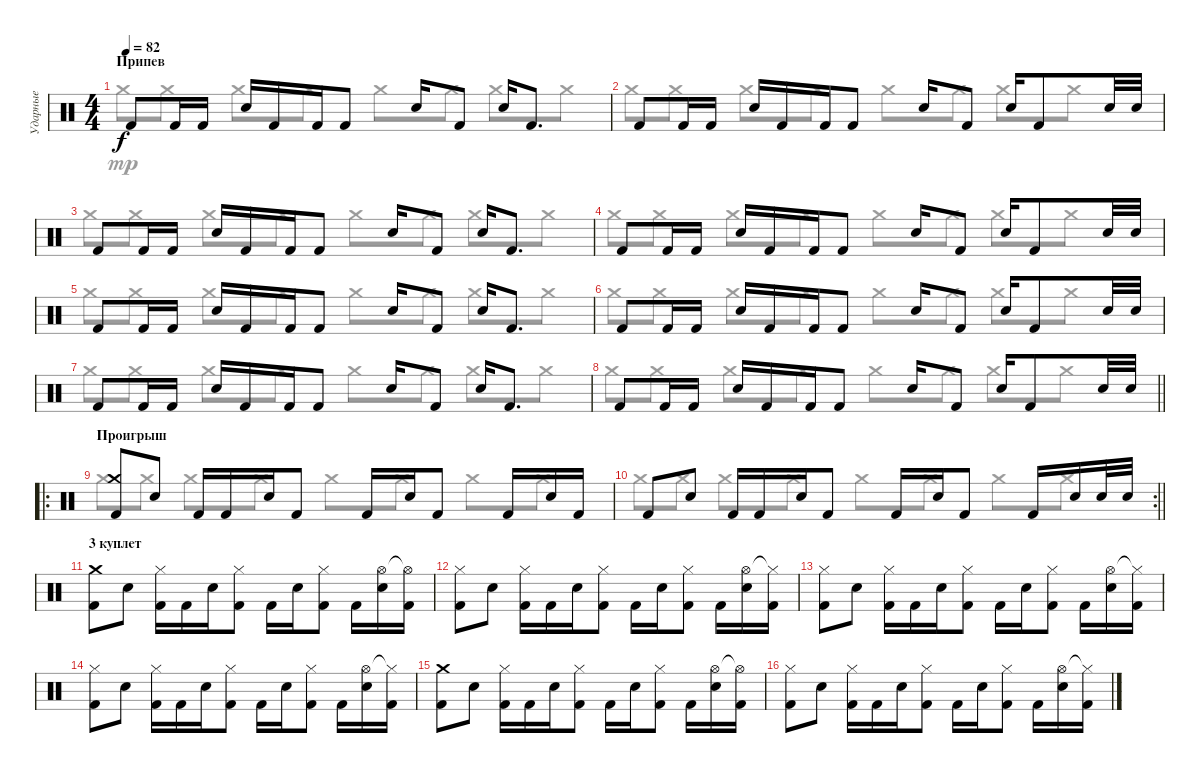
\track ("Ударные" "Ударные") {instrument percussion}
\staff {score}
\articulation defaults
\voice
\ts (4 4)
\section ("" "Припев")
\tempo 82
\clef neutral
\ks c "Kick (hit) 2".8{dy f} "Kick (hit) 2".16 "Kick (hit) 2".16 "Snare (hit) 2".16 "Kick (hit) 2".16 "Kick (hit) 2".16 "Kick (hit) 2".8 "Snare (hit) 2".16 "Kick (hit) 2".8 "Snare (hit) 2".16 "Kick (hit) 2".8{d}
|
"Kick (hit) 2".8 "Kick (hit) 2".16 "Kick (hit) 2".16 "Snare (hit) 2".16 "Kick (hit) 2".16 "Kick (hit) 2".16 "Kick (hit) 2".8 "Snare (hit) 2".16 "Kick (hit) 2".8 "Snare (hit) 2".16 "Kick (hit) 2".8 "Snare (hit) 2".32 "Snare (hit) 2".32 |
"Kick (hit) 2".8 "Kick (hit) 2".16 "Kick (hit) 2".16 "Snare (hit) 2".16 "Kick (hit) 2".16 "Kick (hit) 2".16 "Kick (hit) 2".8 "Snare (hit) 2".16 "Kick (hit) 2".8 "Snare (hit) 2".16 "Kick (hit) 2".8{d} |
"Kick (hit) 2".8 "Kick (hit) 2".16 "Kick (hit) 2".16 "Snare (hit) 2".16 "Kick (hit) 2".16 "Kick (hit) 2".16 "Kick (hit) 2".8 "Snare (hit) 2".16 "Kick (hit) 2".8 "Snare (hit) 2".16 "Kick (hit) 2".8 "Snare (hit) 2".32 "Snare (hit) 2".32 |
"Kick (hit) 2".8 "Kick (hit) 2".16 "Kick (hit) 2".16 "Snare (hit) 2".16 "Kick (hit) 2".16 "Kick (hit) 2".16 "Kick (hit) 2".8 "Snare (hit) 2".16 "Kick (hit) 2".8 "Snare (hit) 2".16 "Kick (hit) 2".8{d} |
"Kick (hit) 2".8 "Kick (hit) 2".16 "Kick (hit) 2".16 "Snare (hit) 2".16 "Kick (hit) 2".16 "Kick (hit) 2".16 "Kick (hit) 2".8 "Snare (hit) 2".16 "Kick (hit) 2".8 "Snare (hit) 2".16 "Kick (hit) 2".8 "Snare (hit) 2".32 "Snare (hit) 2".32 |
"Kick (hit) 2".8 "Kick (hit) 2".16 "Kick (hit) 2".16 "Snare (hit) 2".16 "Kick (hit) 2".16 "Kick (hit) 2".16 "Kick (hit) 2".8 "Snare (hit) 2".16 "Kick (hit) 2".8 "Snare (hit) 2".16 "Kick (hit) 2".8{d} |
\barLineRight lightlight "Kick (hit) 2".8 "Kick (hit) 2".16 "Kick (hit) 2".16 "Snare (hit) 2".16 "Kick (hit) 2".16 "Kick (hit) 2".16 "Kick (hit) 2".8 "Snare (hit) 2".16 "Kick (hit) 2".8 "Snare (hit) 2".16 "Kick (hit) 2".8 "Snare (hit) 2".32 "Snare (hit) 2".32
|
\ro
\section ("" "Проигрыш")
("Crash medium (hit)" "Kick (hit) 2").8 "Snare (hit) 2".8 "Kick (hit) 2".16 "Kick (hit) 2".16 "Snare (hit) 2".16 "Kick (hit) 2".8 "Kick (hit) 2".16 "Snare (hit) 2".16 "Kick (hit) 2".8 "Kick (hit) 2".16 "Snare (hit) 2".16 "Kick (hit) 2".16 |
\rc 2
\barLineRight lightlight "Kick (hit) 2".8 "Snare (hit) 2".8 "Kick (hit) 2".16 "Kick (hit) 2".16 "Snare (hit) 2".16 "Kick (hit) 2".8 "Kick (hit) 2".16 "Snare (hit) 2".16 "Kick (hit) 2".8 "Kick (hit) 2".16 "Snare (hit) 2".16 "Snare (hit) 2".32 "Snare (hit) 2".32
|
\section ("" "3 куплет")
("Crash medium (hit)" "Kick (hit) 2").8 "Snare (hit) 2".8 ("Hi-Hat (closed)" "Kick (hit) 2").16 "Kick (hit) 2".16 "Snare (hit) 2".16 ("Hi-Hat (closed)" "Kick (hit) 2").8 "Kick (hit) 2".16 "Snare (hit) 2".16 ("Hi-Hat (closed)" "Kick (hit) 2").8 "Kick (hit) 2".16 ("Hi-Hat (open)" "Snare (hit) 2").16 ("Hi-Hat (open)"{t} "Kick (hit) 2").16 |
("Hi-Hat (closed)" "Kick (hit) 2").8 "Snare (hit) 2".8 ("Hi-Hat (closed)" "Kick (hit) 2").16 "Kick (hit) 2".16 "Snare (hit) 2".16 ("Hi-Hat (closed)" "Kick (hit) 2").8 "Kick (hit) 2".16 "Snare (hit) 2".16 ("Hi-Hat (closed)" "Kick (hit) 2").8 "Kick (hit) 2".16 ("Hi-Hat (open)" "Snare (hit) 2").16 ("Hi-Hat (closed)"{t} "Kick (hit) 2").16 |
("Hi-Hat (closed)" "Kick (hit) 2").8 "Snare (hit) 2".8 ("Hi-Hat (closed)" "Kick (hit) 2").16 "Kick (hit) 2".16 "Snare (hit) 2".16 ("Hi-Hat (closed)" "Kick (hit) 2").8 "Kick (hit) 2".16 "Snare (hit) 2".16 ("Hi-Hat (closed)" "Kick (hit) 2").8 "Kick (hit) 2".16 ("Hi-Hat (open)" "Snare (hit) 2").16 ("Hi-Hat (closed)"{t} "Kick (hit) 2").16 |
("Hi-Hat (closed)" "Kick (hit) 2").8 "Snare (hit) 2".8 ("Hi-Hat (closed)" "Kick (hit) 2").16 "Kick (hit) 2".16 "Snare (hit) 2".16 ("Hi-Hat (closed)" "Kick (hit) 2").8 "Kick (hit) 2".16 "Snare (hit) 2".16 ("Hi-Hat (closed)" "Kick (hit) 2").8 "Kick (hit) 2".16 ("Hi-Hat (open)" "Snare (hit) 2").16 ("Hi-Hat (closed)"{t} "Kick (hit) 2").16 |
("Crash medium (hit)" "Kick (hit) 2").8 "Snare (hit) 2".8 ("Hi-Hat (closed)" "Kick (hit) 2").16 "Kick (hit) 2".16 "Snare (hit) 2".16 ("Hi-Hat (closed)" "Kick (hit) 2").8 "Kick (hit) 2".16 "Snare (hit) 2".16 ("Hi-Hat (closed)" "Kick (hit) 2").8 "Kick (hit) 2".16 ("Hi-Hat (open)" "Snare (hit) 2").16 ("Hi-Hat (open)"{t} "Kick (hit) 2").16 |
("Hi-Hat (closed)" "Kick (hit) 2").8 "Snare (hit) 2".8 ("Hi-Hat (closed)" "Kick (hit) 2").16 "Kick (hit) 2".16 "Snare (hit) 2".16 ("Hi-Hat (closed)" "Kick (hit) 2").8 "Kick (hit) 2".16 "Snare (hit) 2".16 ("Hi-Hat (closed)" "Kick (hit) 2").8 "Kick (hit) 2".16 ("Hi-Hat (open)" "Snare (hit) 2").16 ("Hi-Hat (closed)"{t} "Kick (hit) 2").16
\voice
\clef neutral
\ottava regular
\simile none
\ks c "Crash medium (hit)".8{dy mp} "Crash medium (hit)".8 "Crash medium (hit)".8 "Crash medium (hit)".8 "Crash medium (hit)".8 "Crash medium (hit)".8 "Crash medium (hit)".8 "Crash medium (hit)".8
|
"Crash medium (hit)".8 "Crash medium (hit)".8 "Crash medium (hit)".8 "Crash medium (hit)".8 "Crash medium (hit)".8 "Crash medium (hit)".8 "Crash medium (hit)".8 "Crash medium (hit)".8 |
"Crash medium (hit)".8 "Crash medium (hit)".8 "Crash medium (hit)".8 "Crash medium (hit)".8 "Crash medium (hit)".8 "Crash medium (hit)".8 "Crash medium (hit)".8 "Crash medium (hit)".8 |
"Crash medium (hit)".8 "Crash medium (hit)".8 "Crash medium (hit)".8 "Crash medium (hit)".8 "Crash medium (hit)".8 "Crash medium (hit)".8 "Crash medium (hit)".8 "Crash medium (hit)".8 |
"Crash medium (hit)".8 "Crash medium (hit)".8 "Crash medium (hit)".8 "Crash medium (hit)".8 "Crash medium (hit)".8 "Crash medium (hit)".8 "Crash medium (hit)".8 "Crash medium (hit)".8 |
"Crash medium (hit)".8 "Crash medium (hit)".8 "Crash medium (hit)".8 "Crash medium (hit)".8 "Crash medium (hit)".8 "Crash medium (hit)".8 "Crash medium (hit)".8 "Crash medium (hit)".8 |
"Crash medium (hit)".8 "Crash medium (hit)".8 "Crash medium (hit)".8 "Crash medium (hit)".8 "Crash medium (hit)".8 "Crash medium (hit)".8 "Crash medium (hit)".8 "Crash medium (hit)".8 |
\barLineRight lightlight "Crash medium (hit)".8 "Crash medium (hit)".8 "Crash medium (hit)".8 "Crash medium (hit)".8 "Crash medium (hit)".8 "Crash medium (hit)".8 "Crash medium (hit)".8 "Crash medium (hit)".8
|
"Crash medium (hit)".8 "Crash medium (hit)".8 "Crash medium (hit)".8 "Crash medium (hit)".8 "Crash medium (hit)".8 "Crash medium (hit)".8 "Crash medium (hit)".8 "Crash medium (hit)".8 |
\barLineRight lightlight "Crash medium (hit)".8 "Crash medium (hit)".8 "Crash medium (hit)".8 "Crash medium (hit)".8 "Crash medium (hit)".8 "Crash medium (hit)".8 "Crash medium (hit)".8 "Crash medium (hit)".8
|
|
|
|
|
|
